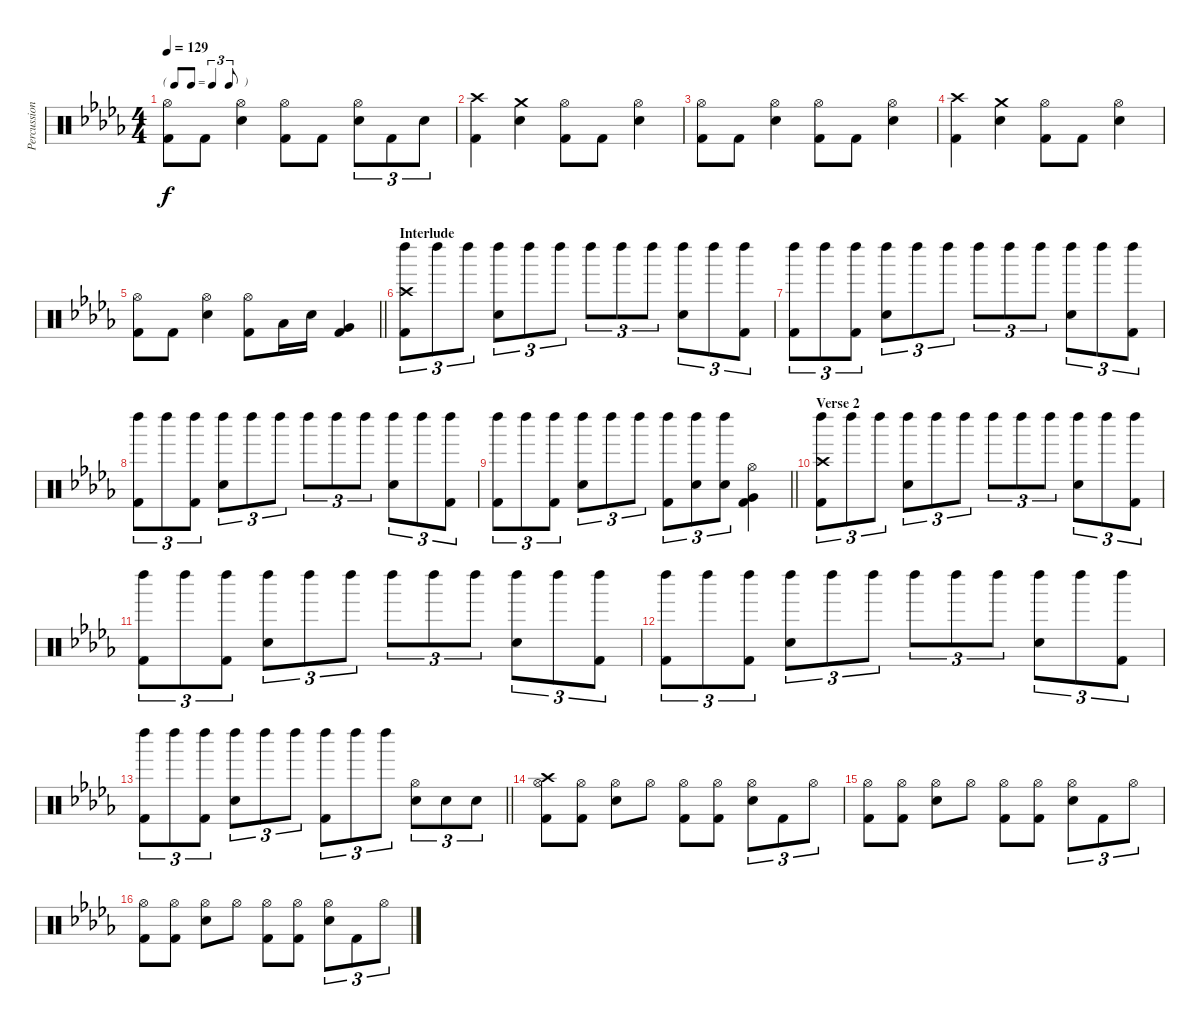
\track ("Percussion" "Percussion") {instrument percussion}
\staff {score}
\articulation defaults
\ts (4 4)
\tf triplet8th
\tempo 129
\clef neutral
\ks db
("Hi-Hat (open)" "Kick (hit) 2").8{dy f} "Kick (hit) 2".8 ("Hi-Hat (open)" "Electric Snare (hit)").4 ("Hi-Hat (open)" "Kick (hit) 2").8 "Kick (hit) 2".8 ("Hi-Hat (open)" "Electric Snare (hit)").8{tu (3 2)} "Kick (hit) 2".8{tu (3 2)} "Electric Snare (hit)".8{tu (3 2)} |
("Crash high (hit)" "Kick (hit) 2").4 ("Crash medium (hit)" "Electric Snare (hit)").4 ("Hi-Hat (open)" "Kick (hit) 2").8 "Kick (hit) 2".8 ("Hi-Hat (open)" "Electric Snare (hit)").4 |
("Hi-Hat (open)" "Kick (hit) 2").8 "Kick (hit) 2".8 ("Hi-Hat (open)" "Electric Snare (hit)").4 ("Hi-Hat (open)" "Kick (hit) 2").8 "Kick (hit) 2".8 ("Hi-Hat (open)" "Electric Snare (hit)").4 |
("Crash high (hit)" "Kick (hit) 2").4 ("Crash medium (hit)" "Electric Snare (hit)").4 ("Hi-Hat (open)" "Kick (hit) 2").8 "Kick (hit) 2".8 ("Hi-Hat (open)" "Electric Snare (hit)").4 |
\barLineRight lightlight
("Hi-Hat (open)" "Kick (hit) 2").8 "Kick (hit) 2".8 ("Hi-Hat (open)" "Electric Snare (hit)").4 ("Hi-Hat (open)" "Kick (hit) 2").8 "Low Tom (hit)".16 "Electric Snare (hit)".16 ("Very Low Tom (hit)" "Kick (hit) 2").4 |
\section ("" "Interlude")
("Left Maraca (hit)" "Crash high (hit)" "Kick (hit) 2").8{tu (3 2)} "Left Maraca (hit)".8{tu (3 2)} "Left Maraca (hit)".8{tu (3 2)} ("Left Maraca (hit)" "Electric Snare (hit)").8{tu (3 2)} "Left Maraca (hit)".8{tu (3 2)} "Left Maraca (hit)".8{tu (3 2)} "Left Maraca (hit)".8{tu (3 2)} "Left Maraca (hit)".8{tu (3 2)} "Left Maraca (hit)".8{tu (3 2)} ("Left Maraca (hit)" "Electric Snare (hit)").8{tu (3 2)} "Left Maraca (hit)".8{tu (3 2)} ("Left Maraca (hit)" "Kick (hit) 2").8{tu (3 2)} |
("Left Maraca (hit)" "Kick (hit) 2").8{tu (3 2)} "Left Maraca (hit)".8{tu (3 2)} ("Left Maraca (hit)" "Kick (hit) 2").8{tu (3 2)} ("Left Maraca (hit)" "Electric Snare (hit)").8{tu (3 2)} "Left Maraca (hit)".8{tu (3 2)} "Left Maraca (hit)".8{tu (3 2)} "Left Maraca (hit)".8{tu (3 2)} "Left Maraca (hit)".8{tu (3 2)} "Left Maraca (hit)".8{tu (3 2)} ("Left Maraca (hit)" "Electric Snare (hit)").8{tu (3 2)} "Left Maraca (hit)".8{tu (3 2)} ("Left Maraca (hit)" "Kick (hit) 2").8{tu (3 2)} |
("Left Maraca (hit)" "Kick (hit) 2").8{tu (3 2)} "Left Maraca (hit)".8{tu (3 2)} ("Left Maraca (hit)" "Kick (hit) 2").8{tu (3 2)} ("Left Maraca (hit)" "Electric Snare (hit)").8{tu (3 2)} "Left Maraca (hit)".8{tu (3 2)} "Left Maraca (hit)".8{tu (3 2)} "Left Maraca (hit)".8{tu (3 2)} "Left Maraca (hit)".8{tu (3 2)} "Left Maraca (hit)".8{tu (3 2)} ("Left Maraca (hit)" "Electric Snare (hit)").8{tu (3 2)} "Left Maraca (hit)".8{tu (3 2)} ("Left Maraca (hit)" "Kick (hit) 2").8{tu (3 2)} |
\barLineRight lightlight
("Left Maraca (hit)" "Kick (hit) 2").8{tu (3 2)} "Left Maraca (hit)".8{tu (3 2)} ("Left Maraca (hit)" "Kick (hit) 2").8{tu (3 2)} ("Left Maraca (hit)" "Electric Snare (hit)").8{tu (3 2)} "Left Maraca (hit)".8{tu (3 2)} "Left Maraca (hit)".8{tu (3 2)} ("Left Maraca (hit)" "Kick (hit) 2").8{tu (3 2)} ("Left Maraca (hit)" "Electric Snare (hit)").8{tu (3 2)} ("Left Maraca (hit)" "Electric Snare (hit)").8{tu (3 2)} ("Hi-Hat (open)" "Very Low Tom (hit)" "Kick (hit) 2").4 |
\section ("" "Verse 2")
("Left Maraca (hit)" "Crash high (hit)" "Kick (hit) 2").8{tu (3 2)} "Left Maraca (hit)".8{tu (3 2)} "Left Maraca (hit)".8{tu (3 2)} ("Left Maraca (hit)" "Electric Snare (hit)").8{tu (3 2)} "Left Maraca (hit)".8{tu (3 2)} "Left Maraca (hit)".8{tu (3 2)} "Left Maraca (hit)".8{tu (3 2)} "Left Maraca (hit)".8{tu (3 2)} "Left Maraca (hit)".8{tu (3 2)} ("Left Maraca (hit)" "Electric Snare (hit)").8{tu (3 2)} "Left Maraca (hit)".8{tu (3 2)} ("Left Maraca (hit)" "Kick (hit) 2").8{tu (3 2)} |
("Left Maraca (hit)" "Kick (hit) 2").8{tu (3 2)} "Left Maraca (hit)".8{tu (3 2)} ("Left Maraca (hit)" "Kick (hit) 2").8{tu (3 2)} ("Left Maraca (hit)" "Electric Snare (hit)").8{tu (3 2)} "Left Maraca (hit)".8{tu (3 2)} "Left Maraca (hit)".8{tu (3 2)} "Left Maraca (hit)".8{tu (3 2)} "Left Maraca (hit)".8{tu (3 2)} "Left Maraca (hit)".8{tu (3 2)} ("Left Maraca (hit)" "Electric Snare (hit)").8{tu (3 2)} "Left Maraca (hit)".8{tu (3 2)} ("Left Maraca (hit)" "Kick (hit) 2").8{tu (3 2)} |
("Left Maraca (hit)" "Kick (hit) 2").8{tu (3 2)} "Left Maraca (hit)".8{tu (3 2)} ("Left Maraca (hit)" "Kick (hit) 2").8{tu (3 2)} ("Left Maraca (hit)" "Electric Snare (hit)").8{tu (3 2)} "Left Maraca (hit)".8{tu (3 2)} "Left Maraca (hit)".8{tu (3 2)} "Left Maraca (hit)".8{tu (3 2)} "Left Maraca (hit)".8{tu (3 2)} "Left Maraca (hit)".8{tu (3 2)} ("Left Maraca (hit)" "Electric Snare (hit)").8{tu (3 2)} "Left Maraca (hit)".8{tu (3 2)} ("Left Maraca (hit)" "Kick (hit) 2").8{tu (3 2)} |
\barLineRight lightlight
("Left Maraca (hit)" "Kick (hit) 2").8{tu (3 2)} "Left Maraca (hit)".8{tu (3 2)} ("Left Maraca (hit)" "Kick (hit) 2").8{tu (3 2)} ("Left Maraca (hit)" "Electric Snare (hit)").8{tu (3 2)} "Left Maraca (hit)".8{tu (3 2)} "Left Maraca (hit)".8{tu (3 2)} ("Left Maraca (hit)" "Kick (hit) 2").8{tu (3 2)} "Left Maraca (hit)".8{tu (3 2)} "Left Maraca (hit)".8{tu (3 2)} ("Hi-Hat (open)" "Electric Snare (hit)").8{tu (3 2)} "Electric Snare (hit)".8{tu (3 2)} "Electric Snare (hit)".8{tu (3 2)} |
("Crash high (hit)" "Hi-Hat (open)" "Kick (hit) 2").8 ("Hi-Hat (open)" "Kick (hit) 2").8 ("Hi-Hat (open)" "Electric Snare (hit)").8 "Hi-Hat (open)".8 ("Hi-Hat (open)" "Kick (hit) 2").8 ("Hi-Hat (open)" "Kick (hit) 2").8 ("Hi-Hat (open)" "Electric Snare (hit)").8{tu (3 2)} "Kick (hit) 2".8{tu (3 2)} "Hi-Hat (open)".8{tu (3 2)} |
("Hi-Hat (open)" "Kick (hit) 2").8 ("Hi-Hat (open)" "Kick (hit) 2").8 ("Hi-Hat (open)" "Electric Snare (hit)").8 "Hi-Hat (open)".8 ("Hi-Hat (open)" "Kick (hit) 2").8 ("Hi-Hat (open)" "Kick (hit) 2").8 ("Hi-Hat (open)" "Electric Snare (hit)").8{tu (3 2)} "Kick (hit) 2".8{tu (3 2)} "Hi-Hat (open)".8{tu (3 2)} |
("Hi-Hat (open)" "Kick (hit) 2").8 ("Hi-Hat (open)" "Kick (hit) 2").8 ("Hi-Hat (open)" "Electric Snare (hit)").8 "Hi-Hat (open)".8 ("Hi-Hat (open)" "Kick (hit) 2").8 ("Hi-Hat (open)" "Kick (hit) 2").8 ("Hi-Hat (open)" "Electric Snare (hit)").8{tu (3 2)} "Kick (hit) 2".8{tu (3 2)} "Hi-Hat (open)".8{tu (3 2)}
